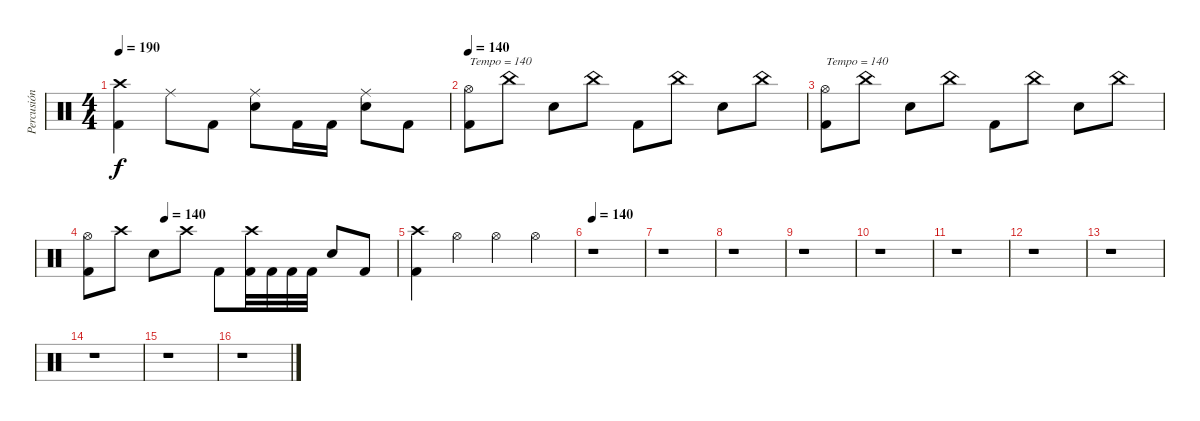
\track ("Percusión" "Percusión") {instrument percussion}
\staff {score}
\articulation defaults
\ts (4 4)
\tempo 190
\clef neutral
\ks c
("Kick (hit) 2" "Crash high (hit)").4{dy f} "Ride (middle)".8 "Kick (hit) 2".8 ("Snare (hit) 2" "Ride (middle)").8 "Kick (hit) 2".16 "Kick (hit) 2".16 ("Snare (hit) 2" "Ride (middle)").8 "Kick (hit) 2".8 |
\tempo 140
("Kick (hit) 2" "Hi-Hat (open)").8{txt "Tempo = 140"} "China (hit)".8 "Snare (hit) 2".8 "China (hit)".8 "Kick (hit) 2".8 "China (hit)".8 "Snare (hit) 2".8 "China (hit)".8 |
("Kick (hit) 2" "Hi-Hat (open)").8{txt "Tempo = 140"} "China (hit)".8 "Snare (hit) 2".8 "China (hit)".8 "Kick (hit) 2".8 "China (hit)".8 "Snare (hit) 2".8 "China (hit)".8 |
\tempo (140 0.25)
("Kick (hit) 2" "Hi-Hat (open)").8 "Crash high (hit)".8 "Snare (hit) 2".8 "Crash high (hit)".8 "Kick (hit) 2".8 ("Kick (hit) 2" "Crash high (hit)").32 "Kick (hit) 2".32 "Kick (hit) 2".32 "Kick (hit) 2".32 "Snare (hit) 2".8 "Kick (hit) 2".8 |
("Kick (hit) 2" "Crash high (hit)").4 "Hi-Hat (open)".4 "Hi-Hat (open)".4 "Hi-Hat (open)".4 |
\tempo 140
r.1 |
r.1 |
r.1 |
r.1 |
r.1 |
r.1 |
r.1 |
r.1 |
r.1 |
r.1 |
r.1
